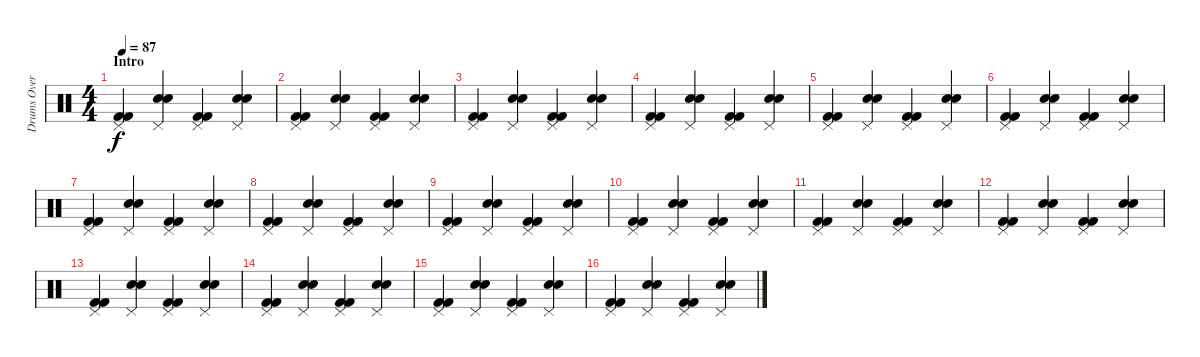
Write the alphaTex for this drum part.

\track ("Drums Overdub" "Drums Over") {instrument percussion}
\staff {score}
\articulation defaults
\ts (4 4)
\section ("" "Intro")
\tempo 87
\clef neutral
\ks c
("Pedal Hi-Hat (hit)" "Kick (hit) 2" "Kick (hit) 2").4{dy f} ("Snare (hit) 2" "Snare (hit) 2" "Pedal Hi-Hat (hit)").4 ("Pedal Hi-Hat (hit)" "Kick (hit) 2" "Kick (hit) 2").4 ("Snare (hit) 2" "Snare (hit) 2" "Pedal Hi-Hat (hit)").4 |
("Pedal Hi-Hat (hit)" "Kick (hit) 2" "Kick (hit) 2").4 ("Snare (hit) 2" "Snare (hit) 2" "Pedal Hi-Hat (hit)").4 ("Pedal Hi-Hat (hit)" "Kick (hit) 2" "Kick (hit) 2").4 ("Snare (hit) 2" "Snare (hit) 2" "Pedal Hi-Hat (hit)").4 |
("Pedal Hi-Hat (hit)" "Kick (hit) 2" "Kick (hit) 2").4 ("Snare (hit) 2" "Snare (hit) 2" "Pedal Hi-Hat (hit)").4 ("Pedal Hi-Hat (hit)" "Kick (hit) 2" "Kick (hit) 2").4 ("Snare (hit) 2" "Snare (hit) 2" "Pedal Hi-Hat (hit)").4 |
("Pedal Hi-Hat (hit)" "Kick (hit) 2" "Kick (hit) 2").4 ("Snare (hit) 2" "Snare (hit) 2" "Pedal Hi-Hat (hit)").4 ("Pedal Hi-Hat (hit)" "Kick (hit) 2" "Kick (hit) 2").4 ("Snare (hit) 2" "Snare (hit) 2" "Pedal Hi-Hat (hit)").4 |
("Pedal Hi-Hat (hit)" "Kick (hit) 2" "Kick (hit) 2").4 ("Snare (hit) 2" "Snare (hit) 2" "Pedal Hi-Hat (hit)").4 ("Pedal Hi-Hat (hit)" "Kick (hit) 2" "Kick (hit) 2").4 ("Snare (hit) 2" "Snare (hit) 2" "Pedal Hi-Hat (hit)").4 |
("Pedal Hi-Hat (hit)" "Kick (hit) 2" "Kick (hit) 2").4 ("Snare (hit) 2" "Snare (hit) 2" "Pedal Hi-Hat (hit)").4 ("Pedal Hi-Hat (hit)" "Kick (hit) 2" "Kick (hit) 2").4 ("Snare (hit) 2" "Snare (hit) 2" "Pedal Hi-Hat (hit)").4 |
("Pedal Hi-Hat (hit)" "Kick (hit) 2" "Kick (hit) 2").4 ("Snare (hit) 2" "Snare (hit) 2" "Pedal Hi-Hat (hit)").4 ("Pedal Hi-Hat (hit)" "Kick (hit) 2" "Kick (hit) 2").4 ("Snare (hit) 2" "Snare (hit) 2" "Pedal Hi-Hat (hit)").4 |
("Pedal Hi-Hat (hit)" "Kick (hit) 2" "Kick (hit) 2").4 ("Snare (hit) 2" "Snare (hit) 2" "Pedal Hi-Hat (hit)").4 ("Pedal Hi-Hat (hit)" "Kick (hit) 2" "Kick (hit) 2").4 ("Snare (hit) 2" "Snare (hit) 2" "Pedal Hi-Hat (hit)").4 |
("Pedal Hi-Hat (hit)" "Kick (hit) 2" "Kick (hit) 2").4 ("Snare (hit) 2" "Snare (hit) 2" "Pedal Hi-Hat (hit)").4 ("Pedal Hi-Hat (hit)" "Kick (hit) 2" "Kick (hit) 2").4 ("Snare (hit) 2" "Snare (hit) 2" "Pedal Hi-Hat (hit)").4 |
("Pedal Hi-Hat (hit)" "Kick (hit) 2" "Kick (hit) 2").4 ("Snare (hit) 2" "Snare (hit) 2" "Pedal Hi-Hat (hit)").4 ("Pedal Hi-Hat (hit)" "Kick (hit) 2" "Kick (hit) 2").4 ("Snare (hit) 2" "Snare (hit) 2" "Pedal Hi-Hat (hit)").4 |
("Pedal Hi-Hat (hit)" "Kick (hit) 2" "Kick (hit) 2").4 ("Snare (hit) 2" "Snare (hit) 2" "Pedal Hi-Hat (hit)").4 ("Pedal Hi-Hat (hit)" "Kick (hit) 2" "Kick (hit) 2").4 ("Snare (hit) 2" "Snare (hit) 2" "Pedal Hi-Hat (hit)").4 |
("Pedal Hi-Hat (hit)" "Kick (hit) 2" "Kick (hit) 2").4 ("Snare (hit) 2" "Snare (hit) 2" "Pedal Hi-Hat (hit)").4 ("Pedal Hi-Hat (hit)" "Kick (hit) 2" "Kick (hit) 2").4 ("Snare (hit) 2" "Snare (hit) 2" "Pedal Hi-Hat (hit)").4 |
("Pedal Hi-Hat (hit)" "Kick (hit) 2" "Kick (hit) 2").4 ("Snare (hit) 2" "Snare (hit) 2" "Pedal Hi-Hat (hit)").4 ("Pedal Hi-Hat (hit)" "Kick (hit) 2" "Kick (hit) 2").4 ("Snare (hit) 2" "Snare (hit) 2" "Pedal Hi-Hat (hit)").4 |
("Pedal Hi-Hat (hit)" "Kick (hit) 2" "Kick (hit) 2").4 ("Snare (hit) 2" "Snare (hit) 2" "Pedal Hi-Hat (hit)").4 ("Pedal Hi-Hat (hit)" "Kick (hit) 2" "Kick (hit) 2").4 ("Snare (hit) 2" "Snare (hit) 2" "Pedal Hi-Hat (hit)").4 |
("Pedal Hi-Hat (hit)" "Kick (hit) 2" "Kick (hit) 2").4 ("Snare (hit) 2" "Snare (hit) 2" "Pedal Hi-Hat (hit)").4 ("Pedal Hi-Hat (hit)" "Kick (hit) 2" "Kick (hit) 2").4 ("Snare (hit) 2" "Snare (hit) 2" "Pedal Hi-Hat (hit)").4 |
("Pedal Hi-Hat (hit)" "Kick (hit) 2" "Kick (hit) 2").4 ("Snare (hit) 2" "Snare (hit) 2" "Pedal Hi-Hat (hit)").4 ("Pedal Hi-Hat (hit)" "Kick (hit) 2" "Kick (hit) 2").4 ("Snare (hit) 2" "Snare (hit) 2" "Pedal Hi-Hat (hit)").4
